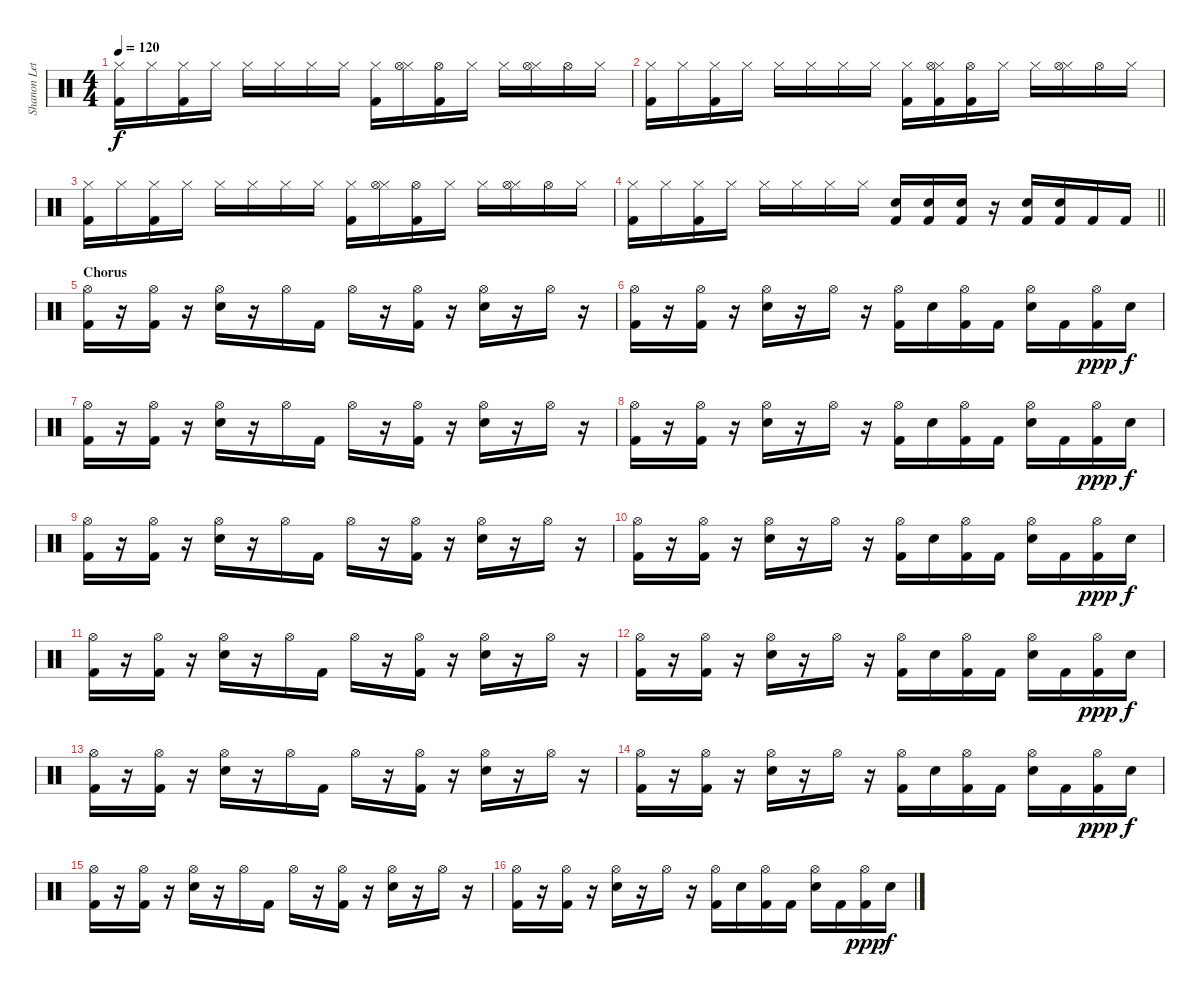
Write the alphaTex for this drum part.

\track ("Shanon Leto(Drums)" "Shanon Let") {instrument percussion}
\staff {score}
\articulation defaults
\ts (4 4)
\tempo 120
\clef neutral
\ks c
("Hi-Hat (closed)" "Kick (hit) 2").16{dy f} "Hi-Hat (closed)".16 ("Hi-Hat (closed)" "Kick (hit) 2").16 "Hi-Hat (closed)".16 "Hi-Hat (closed)".16 "Hi-Hat (closed)".16 "Hi-Hat (closed)".16 "Hi-Hat (closed)".16 ("Hi-Hat (closed)" "Kick (hit) 2").16 ("Hi-Hat (closed)" "Hi-Hat (open)").16 ("Hi-Hat (open)" "Kick (hit) 2").16 "Hi-Hat (closed)".16 "Hi-Hat (closed)".16 ("Hi-Hat (closed)" "Hi-Hat (open)").16 "Hi-Hat (open)".16 "Hi-Hat (closed)".16 |
("Hi-Hat (closed)" "Kick (hit) 2").16 "Hi-Hat (closed)".16 ("Hi-Hat (closed)" "Kick (hit) 2").16 "Hi-Hat (closed)".16 "Hi-Hat (closed)".16 "Hi-Hat (closed)".16 "Hi-Hat (closed)".16 "Hi-Hat (closed)".16 ("Hi-Hat (closed)" "Kick (hit) 2").16 ("Hi-Hat (closed)" "Hi-Hat (open)" "Kick (hit) 2").16 ("Hi-Hat (open)" "Kick (hit) 2").16 "Hi-Hat (closed)".16 "Hi-Hat (closed)".16 ("Hi-Hat (closed)" "Hi-Hat (open)").16 "Hi-Hat (open)".16 "Hi-Hat (closed)".16 |
("Hi-Hat (closed)" "Kick (hit) 2").16 "Hi-Hat (closed)".16 ("Hi-Hat (closed)" "Kick (hit) 2").16 "Hi-Hat (closed)".16 "Hi-Hat (closed)".16 "Hi-Hat (closed)".16 "Hi-Hat (closed)".16 "Hi-Hat (closed)".16 ("Hi-Hat (closed)" "Kick (hit) 2").16 ("Hi-Hat (closed)" "Hi-Hat (open)").16 ("Hi-Hat (open)" "Kick (hit) 2").16 "Hi-Hat (closed)".16 "Hi-Hat (closed)".16 ("Hi-Hat (closed)" "Hi-Hat (open)").16 "Hi-Hat (open)".16 "Hi-Hat (closed)".16 |
\barLineRight lightlight
("Hi-Hat (closed)" "Kick (hit) 2").16 "Hi-Hat (closed)".16 ("Hi-Hat (closed)" "Kick (hit) 2").16 "Hi-Hat (closed)".16 "Hi-Hat (closed)".16 "Hi-Hat (closed)".16 "Hi-Hat (closed)".16 "Hi-Hat (closed)".16 ("Kick (hit) 2" "Electric Snare (hit)").16 ("Kick (hit) 2" "Electric Snare (hit)").16 ("Kick (hit) 2" "Electric Snare (hit)").16 r.16 ("Electric Snare (hit)" "Kick (hit) 2").16 ("Electric Snare (hit)" "Kick (hit) 2").16 "Kick (hit) 2".16 "Kick (hit) 2".16 |
\section ("" "Chorus")
("Hi-Hat (open)" "Kick (hit) 2").16 r.16 ("Hi-Hat (open)" "Kick (hit) 2").16 r.16 ("Hi-Hat (open)" "Electric Snare (hit)").16 r.16 "Hi-Hat (open)".16 "Kick (hit) 2".16 "Hi-Hat (open)".16 r.16 ("Hi-Hat (open)" "Kick (hit) 2").16 r.16 ("Hi-Hat (open)" "Electric Snare (hit)").16 r.16 "Hi-Hat (open)".16 r.16 |
("Hi-Hat (open)" "Kick (hit) 2").16 r.16 ("Hi-Hat (open)" "Kick (hit) 2").16 r.16 ("Hi-Hat (open)" "Electric Snare (hit)").16 r.16 "Hi-Hat (open)".16 r.16 ("Hi-Hat (open)" "Kick (hit) 2").16 "Electric Snare (hit)".16 ("Hi-Hat (open)" "Kick (hit) 2").16 "Kick (hit) 2".16 ("Hi-Hat (open)" "Electric Snare (hit)").16 "Kick (hit) 2".16 ("Hi-Hat (open)" "Kick (hit) 2").16{dy ppp} "Electric Snare (hit)".16{dy f} |
("Hi-Hat (open)" "Kick (hit) 2").16 r.16 ("Hi-Hat (open)" "Kick (hit) 2").16 r.16 ("Hi-Hat (open)" "Electric Snare (hit)").16 r.16 "Hi-Hat (open)".16 "Kick (hit) 2".16 "Hi-Hat (open)".16 r.16 ("Hi-Hat (open)" "Kick (hit) 2").16 r.16 ("Hi-Hat (open)" "Electric Snare (hit)").16 r.16 "Hi-Hat (open)".16 r.16 |
("Hi-Hat (open)" "Kick (hit) 2").16 r.16 ("Hi-Hat (open)" "Kick (hit) 2").16 r.16 ("Hi-Hat (open)" "Electric Snare (hit)").16 r.16 "Hi-Hat (open)".16 r.16 ("Hi-Hat (open)" "Kick (hit) 2").16 "Electric Snare (hit)".16 ("Hi-Hat (open)" "Kick (hit) 2").16 "Kick (hit) 2".16 ("Hi-Hat (open)" "Electric Snare (hit)").16 "Kick (hit) 2".16 ("Hi-Hat (open)" "Kick (hit) 2").16{dy ppp} "Electric Snare (hit)".16{dy f} |
("Hi-Hat (open)" "Kick (hit) 2").16 r.16 ("Hi-Hat (open)" "Kick (hit) 2").16 r.16 ("Hi-Hat (open)" "Electric Snare (hit)").16 r.16 "Hi-Hat (open)".16 "Kick (hit) 2".16 "Hi-Hat (open)".16 r.16 ("Hi-Hat (open)" "Kick (hit) 2").16 r.16 ("Hi-Hat (open)" "Electric Snare (hit)").16 r.16 "Hi-Hat (open)".16 r.16 |
("Hi-Hat (open)" "Kick (hit) 2").16 r.16 ("Hi-Hat (open)" "Kick (hit) 2").16 r.16 ("Hi-Hat (open)" "Electric Snare (hit)").16 r.16 "Hi-Hat (open)".16 r.16 ("Hi-Hat (open)" "Kick (hit) 2").16 "Electric Snare (hit)".16 ("Hi-Hat (open)" "Kick (hit) 2").16 "Kick (hit) 2".16 ("Hi-Hat (open)" "Electric Snare (hit)").16 "Kick (hit) 2".16 ("Hi-Hat (open)" "Kick (hit) 2").16{dy ppp} "Electric Snare (hit)".16{dy f} |
("Hi-Hat (open)" "Kick (hit) 2").16 r.16 ("Hi-Hat (open)" "Kick (hit) 2").16 r.16 ("Hi-Hat (open)" "Electric Snare (hit)").16 r.16 "Hi-Hat (open)".16 "Kick (hit) 2".16 "Hi-Hat (open)".16 r.16 ("Hi-Hat (open)" "Kick (hit) 2").16 r.16 ("Hi-Hat (open)" "Electric Snare (hit)").16 r.16 "Hi-Hat (open)".16 r.16 |
("Hi-Hat (open)" "Kick (hit) 2").16 r.16 ("Hi-Hat (open)" "Kick (hit) 2").16 r.16 ("Hi-Hat (open)" "Electric Snare (hit)").16 r.16 "Hi-Hat (open)".16 r.16 ("Hi-Hat (open)" "Kick (hit) 2").16 "Electric Snare (hit)".16 ("Hi-Hat (open)" "Kick (hit) 2").16 "Kick (hit) 2".16 ("Hi-Hat (open)" "Electric Snare (hit)").16 "Kick (hit) 2".16 ("Hi-Hat (open)" "Kick (hit) 2").16{dy ppp} "Electric Snare (hit)".16{dy f} |
("Hi-Hat (open)" "Kick (hit) 2").16 r.16 ("Hi-Hat (open)" "Kick (hit) 2").16 r.16 ("Hi-Hat (open)" "Electric Snare (hit)").16 r.16 "Hi-Hat (open)".16 "Kick (hit) 2".16 "Hi-Hat (open)".16 r.16 ("Hi-Hat (open)" "Kick (hit) 2").16 r.16 ("Hi-Hat (open)" "Electric Snare (hit)").16 r.16 "Hi-Hat (open)".16 r.16 |
("Hi-Hat (open)" "Kick (hit) 2").16 r.16 ("Hi-Hat (open)" "Kick (hit) 2").16 r.16 ("Hi-Hat (open)" "Electric Snare (hit)").16 r.16 "Hi-Hat (open)".16 r.16 ("Hi-Hat (open)" "Kick (hit) 2").16 "Electric Snare (hit)".16 ("Hi-Hat (open)" "Kick (hit) 2").16 "Kick (hit) 2".16 ("Hi-Hat (open)" "Electric Snare (hit)").16 "Kick (hit) 2".16 ("Hi-Hat (open)" "Kick (hit) 2").16{dy ppp} "Electric Snare (hit)".16{dy f} |
("Hi-Hat (open)" "Kick (hit) 2").16 r.16 ("Hi-Hat (open)" "Kick (hit) 2").16 r.16 ("Hi-Hat (open)" "Electric Snare (hit)").16 r.16 "Hi-Hat (open)".16 "Kick (hit) 2".16 "Hi-Hat (open)".16 r.16 ("Hi-Hat (open)" "Kick (hit) 2").16 r.16 ("Hi-Hat (open)" "Electric Snare (hit)").16 r.16 "Hi-Hat (open)".16 r.16 |
("Hi-Hat (open)" "Kick (hit) 2").16 r.16 ("Hi-Hat (open)" "Kick (hit) 2").16 r.16 ("Hi-Hat (open)" "Electric Snare (hit)").16 r.16 "Hi-Hat (open)".16 r.16 ("Hi-Hat (open)" "Kick (hit) 2").16 "Electric Snare (hit)".16 ("Hi-Hat (open)" "Kick (hit) 2").16 "Kick (hit) 2".16 ("Hi-Hat (open)" "Electric Snare (hit)").16 "Kick (hit) 2".16 ("Hi-Hat (open)" "Kick (hit) 2").16{dy ppp} "Electric Snare (hit)".16{dy f}
